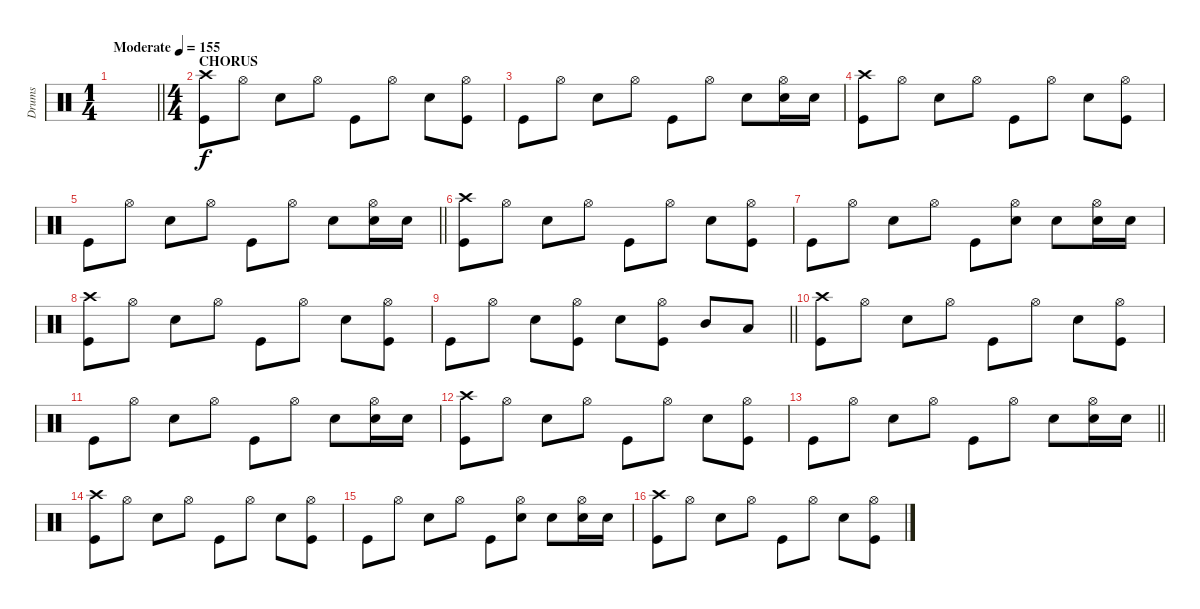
\track ("Drums" "Drums") {instrument percussion}
\staff
\articulation defaults
\ts (1 4)
\tempo (155 "Moderate")
\clef neutral
\barLineRight lightlight
\ks c
|
\ts (4 4)
\section ("" "CHORUS")
("Crash high (hit)" "Kick (hit)").8 "Hi-Hat (open)".8 "Electric Snare (hit)".8 "Hi-Hat (open)".8 "Kick (hit)".8 "Hi-Hat (open)".8 "Electric Snare (hit)".8 ("Hi-Hat (open)" "Kick (hit)").8 |
"Kick (hit)".8 "Hi-Hat (open)".8 "Electric Snare (hit)".8 "Hi-Hat (open)".8 "Kick (hit)".8 "Hi-Hat (open)".8 "Electric Snare (hit)".8 ("Hi-Hat (open)" "Electric Snare (hit)").16 "Electric Snare (hit)".16 |
("Crash high (hit)" "Kick (hit)").8 "Hi-Hat (open)".8 "Electric Snare (hit)".8 "Hi-Hat (open)".8 "Kick (hit)".8 "Hi-Hat (open)".8 "Electric Snare (hit)".8 ("Hi-Hat (open)" "Kick (hit)").8 |
\barLineRight lightlight "Kick (hit)".8 "Hi-Hat (open)".8 "Electric Snare (hit)".8 "Hi-Hat (open)".8 "Kick (hit)".8 "Hi-Hat (open)".8 "Electric Snare (hit)".8
("Hi-Hat (open)" "Electric Snare (hit)").16 "Electric Snare (hit)".16 |
("Crash high (hit)" "Kick (hit)").8 "Hi-Hat (open)".8 "Electric Snare (hit)".8 "Hi-Hat (open)".8 "Kick (hit)".8 "Hi-Hat (open)".8 "Electric Snare (hit)".8 ("Hi-Hat (open)" "Kick (hit)").8 |
"Kick (hit)".8 "Hi-Hat (open)".8 "Electric Snare (hit)".8 "Hi-Hat (open)".8 "Kick (hit)".8 ("Hi-Hat (open)" "Electric Snare (hit)").8 "Electric Snare (hit)".8 ("Hi-Hat (open)" "Electric Snare (hit)").16 "Electric Snare (hit)".16 |
("Crash high (hit)" "Kick (hit)").8 "Hi-Hat (open)".8 "Electric Snare (hit)".8 "Hi-Hat (open)".8 "Kick (hit)".8 "Hi-Hat (open)".8 "Electric Snare (hit)".8 ("Hi-Hat (open)" "Kick (hit)").8 |
\barLineRight lightlight "Kick (hit)".8 "Hi-Hat (open)".8 "Electric Snare (hit)".8
("Hi-Hat (open)" "Kick (hit)").8 "Electric Snare (hit)".8 ("Hi-Hat (open)" "Kick (hit)").8 "Mid Tom (hit)".8 "Low Tom (hit)".8 |
("Crash high (hit)" "Kick (hit)").8 "Hi-Hat (open)".8 "Electric Snare (hit)".8 "Hi-Hat (open)".8 "Kick (hit)".8 "Hi-Hat (open)".8 "Electric Snare (hit)".8 ("Hi-Hat (open)" "Kick (hit)").8 |
"Kick (hit)".8 "Hi-Hat (open)".8 "Electric Snare (hit)".8 "Hi-Hat (open)".8 "Kick (hit)".8 "Hi-Hat (open)".8 "Electric Snare (hit)".8 ("Hi-Hat (open)" "Electric Snare (hit)").16 "Electric Snare (hit)".16 |
("Crash high (hit)" "Kick (hit)").8 "Hi-Hat (open)".8 "Electric Snare (hit)".8 "Hi-Hat (open)".8 "Kick (hit)".8 "Hi-Hat (open)".8 "Electric Snare (hit)".8 ("Hi-Hat (open)" "Kick (hit)").8 |
\barLineRight lightlight "Kick (hit)".8 "Hi-Hat (open)".8 "Electric Snare (hit)".8 "Hi-Hat (open)".8 "Kick (hit)".8 "Hi-Hat (open)".8 "Electric Snare (hit)".8
("Hi-Hat (open)" "Electric Snare (hit)").16 "Electric Snare (hit)".16 |
("Crash high (hit)" "Kick (hit)").8 "Hi-Hat (open)".8 "Electric Snare (hit)".8 "Hi-Hat (open)".8 "Kick (hit)".8 "Hi-Hat (open)".8 "Electric Snare (hit)".8 ("Hi-Hat (open)" "Kick (hit)").8 |
"Kick (hit)".8 "Hi-Hat (open)".8 "Electric Snare (hit)".8 "Hi-Hat (open)".8 "Kick (hit)".8 ("Hi-Hat (open)" "Electric Snare (hit)").8 "Electric Snare (hit)".8 ("Hi-Hat (open)" "Electric Snare (hit)").16 "Electric Snare (hit)".16 |
("Crash high (hit)" "Kick (hit)").8 "Hi-Hat (open)".8 "Electric Snare (hit)".8 "Hi-Hat (open)".8 "Kick (hit)".8 "Hi-Hat (open)".8 "Electric Snare (hit)".8 ("Hi-Hat (open)" "Kick (hit)").8
